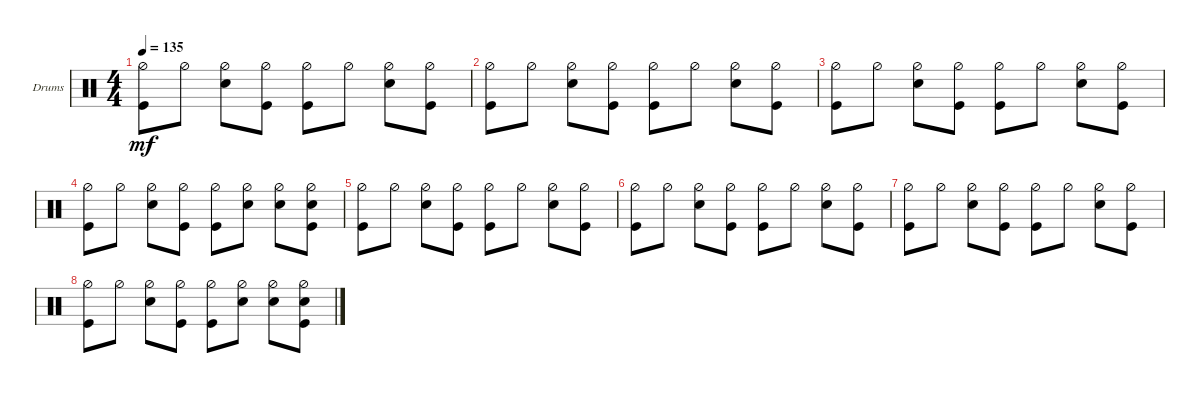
\defaultSystemsLayout 4
\bracketExtendMode groupsimilarinstruments
\firstSystemTrackNameOrientation horizontal
\otherSystemsTrackNameOrientation horizontal
\track ("Drumkit" "Drums") {solo instrument percussion}
\staff {score}
\articulation defaults
\ts (4 4)
\tempo 135
\clef neutral
\ks c
("Kick (hit)" "Hi-Hat (half)").8{dy mf} "Hi-Hat (half)".8 ("Snare (hit) 2" "Hi-Hat (half)").8 ("Kick (hit)" "Hi-Hat (half)").8 ("Kick (hit)" "Hi-Hat (half)").8 "Hi-Hat (half)".8 ("Snare (hit) 2" "Hi-Hat (half)").8 ("Kick (hit)" "Hi-Hat (half)").8 |
("Kick (hit)" "Hi-Hat (half)").8 "Hi-Hat (half)".8 ("Snare (hit) 2" "Hi-Hat (half)").8 ("Kick (hit)" "Hi-Hat (half)").8 ("Kick (hit)" "Hi-Hat (half)").8 "Hi-Hat (half)".8 ("Snare (hit) 2" "Hi-Hat (half)").8 ("Kick (hit)" "Hi-Hat (half)").8 |
("Kick (hit)" "Hi-Hat (half)").8 "Hi-Hat (half)".8 ("Snare (hit) 2" "Hi-Hat (half)").8 ("Kick (hit)" "Hi-Hat (half)").8 ("Kick (hit)" "Hi-Hat (half)").8 "Hi-Hat (half)".8 ("Snare (hit) 2" "Hi-Hat (half)").8 ("Kick (hit)" "Hi-Hat (half)").8 |
("Kick (hit)" "Hi-Hat (half)").8 "Hi-Hat (half)".8 ("Snare (hit) 2" "Hi-Hat (half)").8 ("Kick (hit)" "Hi-Hat (half)").8 ("Kick (hit)" "Hi-Hat (half)").8 ("Hi-Hat (half)" "Snare (hit) 2").8 ("Snare (hit) 2" "Hi-Hat (half)").8 ("Kick (hit)" "Hi-Hat (half)" "Snare (hit) 2").8 |
("Kick (hit)" "Hi-Hat (half)").8 "Hi-Hat (half)".8 ("Snare (hit) 2" "Hi-Hat (half)").8 ("Kick (hit)" "Hi-Hat (half)").8 ("Kick (hit)" "Hi-Hat (half)").8 "Hi-Hat (half)".8 ("Snare (hit) 2" "Hi-Hat (half)").8 ("Kick (hit)" "Hi-Hat (half)").8 |
("Kick (hit)" "Hi-Hat (half)").8 "Hi-Hat (half)".8 ("Snare (hit) 2" "Hi-Hat (half)").8 ("Kick (hit)" "Hi-Hat (half)").8 ("Kick (hit)" "Hi-Hat (half)").8 "Hi-Hat (half)".8 ("Snare (hit) 2" "Hi-Hat (half)").8 ("Kick (hit)" "Hi-Hat (half)").8 |
("Kick (hit)" "Hi-Hat (half)").8 "Hi-Hat (half)".8 ("Snare (hit) 2" "Hi-Hat (half)").8 ("Kick (hit)" "Hi-Hat (half)").8 ("Kick (hit)" "Hi-Hat (half)").8 "Hi-Hat (half)".8 ("Snare (hit) 2" "Hi-Hat (half)").8 ("Kick (hit)" "Hi-Hat (half)").8 |
("Kick (hit)" "Hi-Hat (half)").8 "Hi-Hat (half)".8 ("Snare (hit) 2" "Hi-Hat (half)").8 ("Kick (hit)" "Hi-Hat (half)").8 ("Kick (hit)" "Hi-Hat (half)").8 ("Hi-Hat (half)" "Snare (hit) 2").8 ("Snare (hit) 2" "Hi-Hat (half)").8 ("Kick (hit)" "Hi-Hat (half)" "Snare (hit) 2").8
